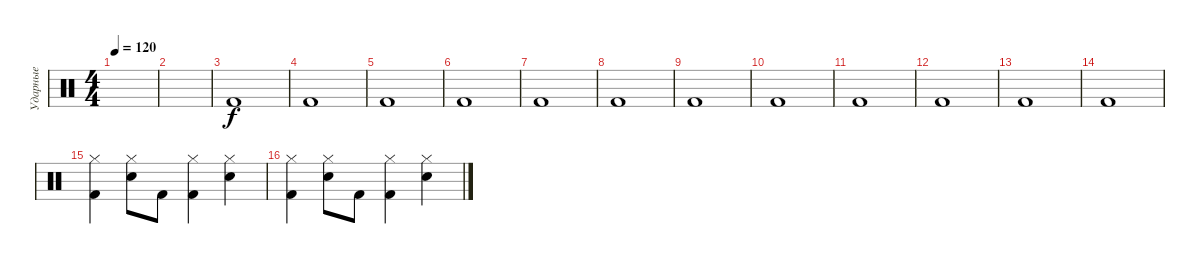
\track ("Ударные" "Ударные") {instrument percussion}
\staff {score}
\articulation defaults
\ts (4 4)
\tempo 120
\clef neutral
\ks aminor
|
|
"Kick (hit) 2".1 |
"Kick (hit) 2".1 |
"Kick (hit) 2".1 |
"Kick (hit) 2".1 |
"Kick (hit) 2".1 |
"Kick (hit) 2".1 |
"Kick (hit) 2".1 |
"Kick (hit) 2".1 |
"Kick (hit) 2".1 |
"Kick (hit) 2".1 |
"Kick (hit) 2".1 |
"Kick (hit) 2".1 |
("Hi-Hat (closed)" "Kick (hit) 2").4 ("Hi-Hat (closed)" "Electric Snare (hit)").8 "Kick (hit) 2".8 ("Hi-Hat (closed)" "Kick (hit) 2").4 ("Hi-Hat (closed)" "Electric Snare (hit)").4 |
("Hi-Hat (closed)" "Kick (hit) 2").4 ("Hi-Hat (closed)" "Electric Snare (hit)").8 "Kick (hit) 2".8 ("Hi-Hat (closed)" "Kick (hit) 2").4 ("Hi-Hat (closed)" "Electric Snare (hit)").4
